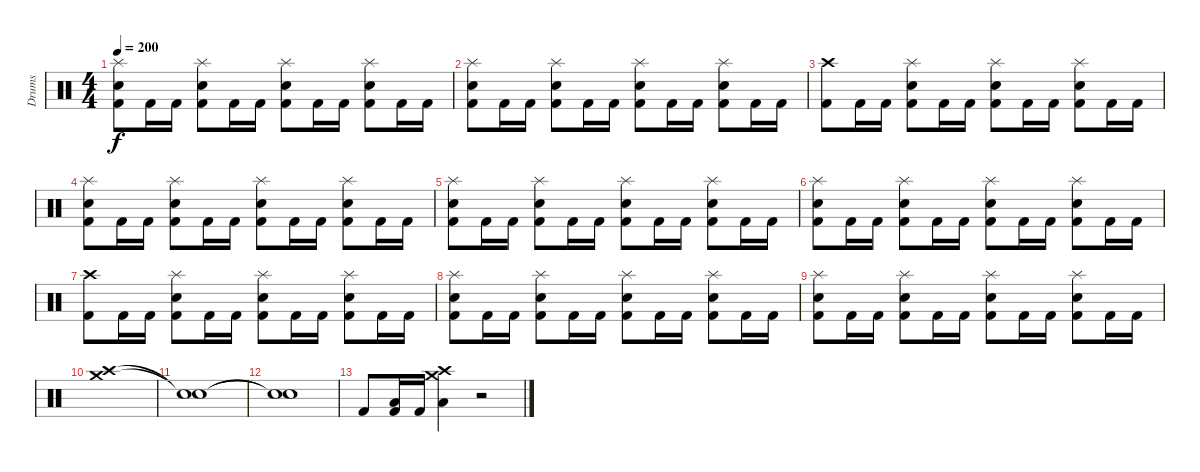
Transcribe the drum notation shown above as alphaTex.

\track ("Drums" "Drums") {instrument percussion}
\staff {score}
\articulation defaults
\ts (4 4)
\tempo 200
\clef neutral
\ks c
("Splash (hit)" "Electric Snare (hit)" "Kick (hit) 2").8{dy f} "Kick (hit) 2".16 "Kick (hit) 2".16 ("Splash (hit)" "Electric Snare (hit)" "Kick (hit) 2").8 "Kick (hit) 2".16 "Kick (hit) 2".16 ("Splash (hit)" "Electric Snare (hit)" "Kick (hit) 2").8 "Kick (hit) 2".16 "Kick (hit) 2".16 ("Splash (hit)" "Electric Snare (hit)" "Kick (hit) 2").8 "Kick (hit) 2".16 "Kick (hit) 2".16 |
("Splash (hit)" "Electric Snare (hit)" "Kick (hit) 2").8 "Kick (hit) 2".16 "Kick (hit) 2".16 ("Splash (hit)" "Electric Snare (hit)" "Kick (hit) 2").8 "Kick (hit) 2".16 "Kick (hit) 2".16 ("Splash (hit)" "Electric Snare (hit)" "Kick (hit) 2").8 "Kick (hit) 2".16 "Kick (hit) 2".16 ("Splash (hit)" "Electric Snare (hit)" "Kick (hit) 2").8 "Kick (hit) 2".16 "Kick (hit) 2".16 |
("Crash high (hit)" "Kick (hit) 2").8 "Kick (hit) 2".16 "Kick (hit) 2".16 ("Splash (hit)" "Electric Snare (hit)" "Kick (hit) 2").8 "Kick (hit) 2".16 "Kick (hit) 2".16 ("Splash (hit)" "Electric Snare (hit)" "Kick (hit) 2").8 "Kick (hit) 2".16 "Kick (hit) 2".16 ("Splash (hit)" "Electric Snare (hit)" "Kick (hit) 2").8 "Kick (hit) 2".16 "Kick (hit) 2".16 |
("Splash (hit)" "Electric Snare (hit)" "Kick (hit) 2").8 "Kick (hit) 2".16 "Kick (hit) 2".16 ("Splash (hit)" "Electric Snare (hit)" "Kick (hit) 2").8 "Kick (hit) 2".16 "Kick (hit) 2".16 ("Splash (hit)" "Electric Snare (hit)" "Kick (hit) 2").8 "Kick (hit) 2".16 "Kick (hit) 2".16 ("Splash (hit)" "Electric Snare (hit)" "Kick (hit) 2").8 "Kick (hit) 2".16 "Kick (hit) 2".16 |
("Splash (hit)" "Electric Snare (hit)" "Kick (hit) 2").8 "Kick (hit) 2".16 "Kick (hit) 2".16 ("Splash (hit)" "Electric Snare (hit)" "Kick (hit) 2").8 "Kick (hit) 2".16 "Kick (hit) 2".16 ("Splash (hit)" "Electric Snare (hit)" "Kick (hit) 2").8 "Kick (hit) 2".16 "Kick (hit) 2".16 ("Splash (hit)" "Electric Snare (hit)" "Kick (hit) 2").8 "Kick (hit) 2".16 "Kick (hit) 2".16 |
("Splash (hit)" "Electric Snare (hit)" "Kick (hit) 2").8 "Kick (hit) 2".16 "Kick (hit) 2".16 ("Splash (hit)" "Electric Snare (hit)" "Kick (hit) 2").8 "Kick (hit) 2".16 "Kick (hit) 2".16 ("Splash (hit)" "Electric Snare (hit)" "Kick (hit) 2").8 "Kick (hit) 2".16 "Kick (hit) 2".16 ("Splash (hit)" "Electric Snare (hit)" "Kick (hit) 2").8 "Kick (hit) 2".16 "Kick (hit) 2".16 |
("Crash high (hit)" "Kick (hit) 2").8 "Kick (hit) 2".16 "Kick (hit) 2".16 ("Splash (hit)" "Electric Snare (hit)" "Kick (hit) 2").8 "Kick (hit) 2".16 "Kick (hit) 2".16 ("Splash (hit)" "Electric Snare (hit)" "Kick (hit) 2").8 "Kick (hit) 2".16 "Kick (hit) 2".16 ("Splash (hit)" "Electric Snare (hit)" "Kick (hit) 2").8 "Kick (hit) 2".16 "Kick (hit) 2".16 |
("Splash (hit)" "Electric Snare (hit)" "Kick (hit) 2").8 "Kick (hit) 2".16 "Kick (hit) 2".16 ("Splash (hit)" "Electric Snare (hit)" "Kick (hit) 2").8 "Kick (hit) 2".16 "Kick (hit) 2".16 ("Splash (hit)" "Electric Snare (hit)" "Kick (hit) 2").8 "Kick (hit) 2".16 "Kick (hit) 2".16 ("Splash (hit)" "Electric Snare (hit)" "Kick (hit) 2").8 "Kick (hit) 2".16 "Kick (hit) 2".16 |
("Splash (hit)" "Electric Snare (hit)" "Kick (hit) 2").8 "Kick (hit) 2".16 "Kick (hit) 2".16 ("Splash (hit)" "Electric Snare (hit)" "Kick (hit) 2").8 "Kick (hit) 2".16 "Kick (hit) 2".16 ("Splash (hit)" "Electric Snare (hit)" "Kick (hit) 2").8 "Kick (hit) 2".16 "Kick (hit) 2".16 ("Splash (hit)" "Electric Snare (hit)" "Kick (hit) 2").8 "Kick (hit) 2".16 "Kick (hit) 2".16 |
("Crash high (hit)" "Crash medium (hit)").1 |
("Snare (hit)"{t} "Snare (hit)"{t}).1 |
("Snare (hit)"{t} "Snare (hit)"{t}).1 |
"Kick (hit) 2".8 ("Low Floor Tom (hit)" "Kick (hit) 2").16 "Kick (hit) 2".16 ("Crash high (hit)" "Low Floor Tom (hit)" "Crash medium (hit)").4 r.2
